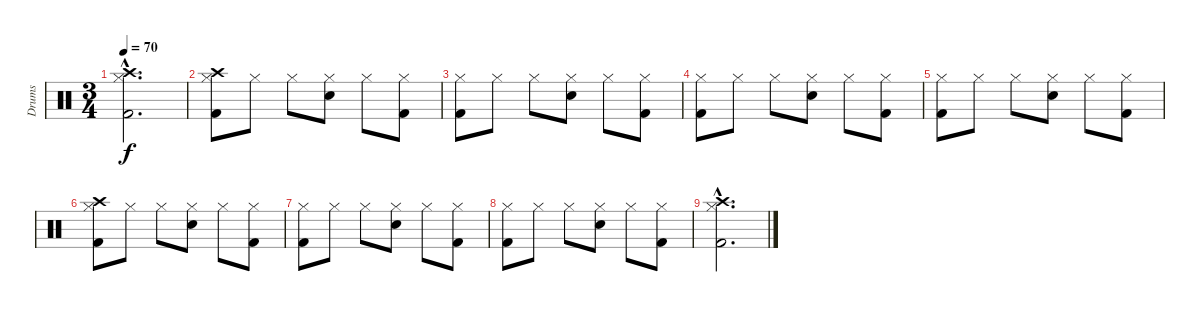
\track ("Drums" "Drums") {instrument percussion}
\staff {score}
\articulation defaults
\ts (3 4)
\tempo 70
\clef neutral
\ks c
("Hi-Hat (closed)"{hac} "Kick (hit) 2"{hac} "Crash high (hit)"{hac}).2{d dy f} |
("Hi-Hat (closed)" "Kick (hit) 2" "Crash high (hit)").8 "Hi-Hat (closed)".8 "Hi-Hat (closed)".8 ("Hi-Hat (closed)" "Snare (hit) 2").8 "Hi-Hat (closed)".8 ("Hi-Hat (closed)" "Kick (hit) 2").8 |
("Hi-Hat (closed)" "Kick (hit) 2").8 "Hi-Hat (closed)".8 "Hi-Hat (closed)".8 ("Hi-Hat (closed)" "Snare (hit) 2").8 "Hi-Hat (closed)".8 ("Hi-Hat (closed)" "Kick (hit) 2").8 |
("Hi-Hat (closed)" "Kick (hit) 2").8 "Hi-Hat (closed)".8 "Hi-Hat (closed)".8 ("Hi-Hat (closed)" "Snare (hit) 2").8 "Hi-Hat (closed)".8 ("Hi-Hat (closed)" "Kick (hit) 2").8 |
("Hi-Hat (closed)" "Kick (hit) 2").8 "Hi-Hat (closed)".8 "Hi-Hat (closed)".8 ("Hi-Hat (closed)" "Snare (hit) 2").8 "Hi-Hat (closed)".8 ("Hi-Hat (closed)" "Kick (hit) 2").8 |
("Hi-Hat (closed)" "Kick (hit) 2" "Crash high (hit)").8 "Hi-Hat (closed)".8 "Hi-Hat (closed)".8 ("Hi-Hat (closed)" "Snare (hit) 2").8 "Hi-Hat (closed)".8 ("Hi-Hat (closed)" "Kick (hit) 2").8 |
("Hi-Hat (closed)" "Kick (hit) 2").8 "Hi-Hat (closed)".8 "Hi-Hat (closed)".8 ("Hi-Hat (closed)" "Snare (hit) 2").8 "Hi-Hat (closed)".8 ("Hi-Hat (closed)" "Kick (hit) 2").8 |
("Hi-Hat (closed)" "Kick (hit) 2").8 "Hi-Hat (closed)".8 "Hi-Hat (closed)".8 ("Hi-Hat (closed)" "Snare (hit) 2").8 "Hi-Hat (closed)".8 ("Hi-Hat (closed)" "Kick (hit) 2").8 |
("Hi-Hat (closed)"{hac} "Kick (hit) 2"{hac} "Crash high (hit)"{hac}).2{d}
